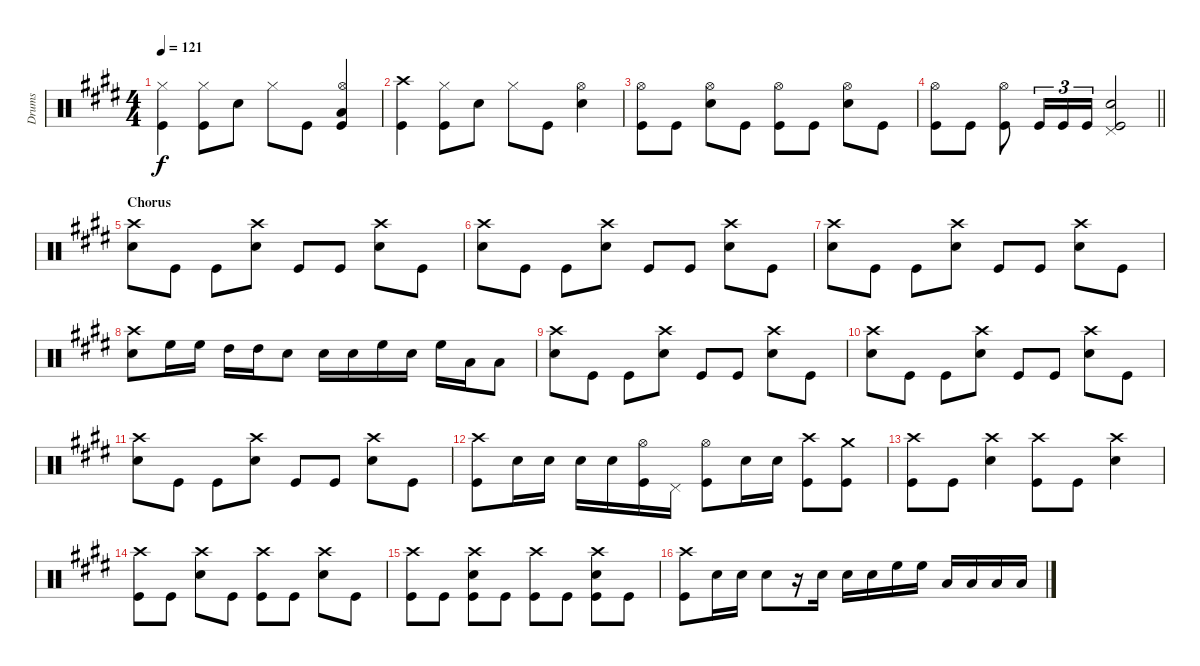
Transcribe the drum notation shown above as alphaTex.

\track ("Drums" "Drums") {instrument percussion}
\staff {score}
\articulation defaults
\ts (4 4)
\tempo 121
\clef neutral
\ks e
("Hi-Hat (closed)" "Kick (hit)").4{dy f} ("Hi-Hat (closed)" "Kick (hit)").8 "Snare (hit) 2".8 "Hi-Hat (closed)".8 "Kick (hit)".8 ("Hi-Hat (open)" "Low Floor Tom (hit)" "Kick (hit)").4 |
("Crash high (hit)" "Kick (hit)").4 ("Hi-Hat (closed)" "Kick (hit)").8 "Snare (hit) 2".8 "Hi-Hat (closed)".8 "Kick (hit)".8 ("Hi-Hat (open)" "Snare (hit) 2").4 |
("Hi-Hat (open)" "Kick (hit)").8 "Kick (hit)".8 ("Hi-Hat (open)" "Snare (hit) 2").8 "Kick (hit)".8 ("Hi-Hat (open)" "Kick (hit)").8 "Kick (hit)".8 ("Hi-Hat (open)" "Snare (hit) 2").8 "Kick (hit)".8 |
\barLineRight lightlight
("Hi-Hat (open)" "Kick (hit)").8 "Kick (hit)".8 ("Hi-Hat (open)" "Kick (hit)").8 "Kick (hit)".16{tu (3 2)} "Kick (hit)".16{tu (3 2)} "Kick (hit)".16{tu (3 2)} ("Pedal Hi-Hat (hit)" "Snare (hit) 2" "Kick (hit)").2 |
\section ("" "Chorus")
("Crash high (hit)" "Snare (hit) 2").8 "Kick (hit)".8 "Kick (hit)".8 ("Crash high (hit)" "Snare (hit) 2").8 "Kick (hit)".8 "Kick (hit)".8 ("Crash high (hit)" "Snare (hit) 2").8 "Kick (hit)".8 |
("Crash high (hit)" "Snare (hit) 2").8 "Kick (hit)".8 "Kick (hit)".8 ("Crash high (hit)" "Snare (hit) 2").8 "Kick (hit)".8 "Kick (hit)".8 ("Crash high (hit)" "Snare (hit) 2").8 "Kick (hit)".8 |
("Crash high (hit)" "Snare (hit) 2").8 "Kick (hit)".8 "Kick (hit)".8 ("Crash high (hit)" "Snare (hit) 2").8 "Kick (hit)".8 "Kick (hit)".8 ("Crash high (hit)" "Snare (hit) 2").8 "Kick (hit)".8 |
("Crash high (hit)" "Snare (hit) 2").8 "High Floor Tom (hit)".16 "High Floor Tom (hit)".16 "High Tom (hit)".16 "High Tom (hit)".16 "Snare (hit) 2".8 "Snare (hit) 2".16 "Snare (hit) 2".16 "High Floor Tom (hit)".16 "Snare (hit) 2".16 "High Floor Tom (hit)".16 "Low Tom (hit)".16 "Low Floor Tom (hit)".8 |
("Crash high (hit)" "Snare (hit) 2").8 "Kick (hit)".8 "Kick (hit)".8 ("Crash high (hit)" "Snare (hit) 2").8 "Kick (hit)".8 "Kick (hit)".8 ("Crash high (hit)" "Snare (hit) 2").8 "Kick (hit)".8 |
("Crash high (hit)" "Snare (hit) 2").8 "Kick (hit)".8 "Kick (hit)".8 ("Crash high (hit)" "Snare (hit) 2").8 "Kick (hit)".8 "Kick (hit)".8 ("Crash high (hit)" "Snare (hit) 2").8 "Kick (hit)".8 |
("Crash high (hit)" "Snare (hit) 2").8 "Kick (hit)".8 "Kick (hit)".8 ("Crash high (hit)" "Snare (hit) 2").8 "Kick (hit)".8 "Kick (hit)".8 ("Crash high (hit)" "Snare (hit) 2").8 "Kick (hit)".8 |
("Crash high (hit)" "Kick (hit)").8 "Snare (hit) 2".16 "Snare (hit) 2".16 "Snare (hit) 2".16 "Snare (hit) 2".16 ("Hi-Hat (open)" "Kick (hit)").16 "Pedal Hi-Hat (hit)".16 ("Hi-Hat (open)" "Kick (hit)").8 "Snare (hit) 2".16 "Snare (hit) 2".16 ("Crash high (hit)" "Kick (hit)").8 ("Crash medium (hit)" "Kick (hit)").8 |
("Crash high (hit)" "Kick (hit)").8 "Kick (hit)".8 ("Crash high (hit)" "Snare (hit) 2").4 ("Crash high (hit)" "Kick (hit)").8 "Kick (hit)".8 ("Crash high (hit)" "Snare (hit) 2").4 |
("Crash high (hit)" "Kick (hit)").8 "Kick (hit)".8 ("Crash high (hit)" "Snare (hit) 2").8 "Kick (hit)".8 ("Crash high (hit)" "Kick (hit)").8 "Kick (hit)".8 ("Crash high (hit)" "Snare (hit) 2").8 "Kick (hit)".8 |
("Crash high (hit)" "Kick (hit)").8 "Kick (hit)".8 ("Crash high (hit)" "Snare (hit) 2" "Kick (hit)").8 "Kick (hit)".8 ("Crash high (hit)" "Kick (hit)").8 "Kick (hit)".8 ("Crash high (hit)" "Snare (hit) 2" "Kick (hit)").8 "Kick (hit)".8 |
("Crash high (hit)" "Kick (hit)").8 "Snare (hit) 2".16 "Snare (hit) 2".16 "Snare (hit) 2".8 r.16 "Snare (hit) 2".16 "Snare (hit) 2".16 "Snare (hit) 2".16 "High Floor Tom (hit)".16 "High Floor Tom (hit)".16 "Low Tom (hit)".16 "Low Tom (hit)".16 "Low Floor Tom (hit)".16 "Low Floor Tom (hit)".16
